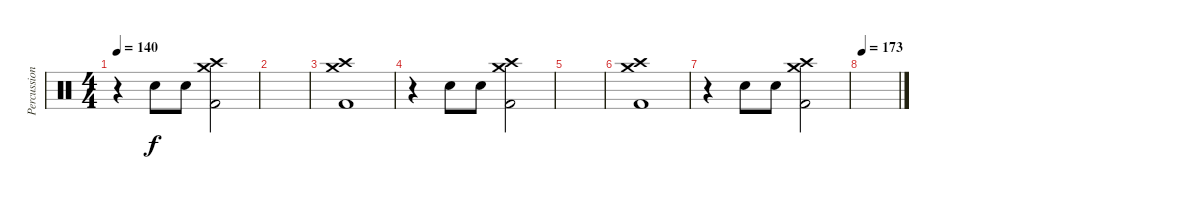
\track ("Percussions" "Percussion") {instrument percussion}
\staff {score}
\articulation defaults
\ts (4 4)
\tempo 140
\clef neutral
\ks c
r.4{dy f} "Electric Snare (hit)".8 "Electric Snare (hit)".8 ("Crash high (hit)" "Crash medium (hit)" "Kick (hit) 2").2 |
|
("Crash high (hit)" "Crash medium (hit)" "Kick (hit) 2").1 |
r.4 "Electric Snare (hit)".8 "Electric Snare (hit)".8 ("Crash high (hit)" "Crash medium (hit)" "Kick (hit) 2").2 |
|
("Crash high (hit)" "Crash medium (hit)" "Kick (hit) 2").1 |
r.4 "Electric Snare (hit)".8 "Electric Snare (hit)".8 ("Crash high (hit)" "Crash medium (hit)" "Kick (hit) 2").2 |
\tempo 173
